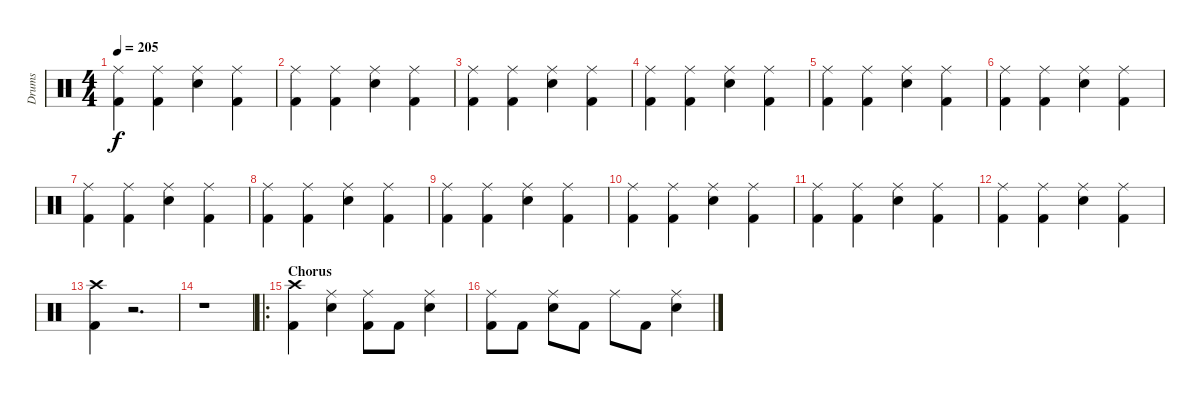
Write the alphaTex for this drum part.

\track ("Drums" "Drums") {instrument percussion}
\staff {score}
\articulation defaults
\ts (4 4)
\tempo 205
\clef neutral
\ks c
("Ride (middle)" "Kick (hit) 2").4{dy f} ("Ride (middle)" "Kick (hit) 2").4 ("Ride (middle)" "Electric Snare (hit)").4 ("Ride (middle)" "Kick (hit) 2").4 |
("Ride (middle)" "Kick (hit) 2").4 ("Ride (middle)" "Kick (hit) 2").4 ("Ride (middle)" "Electric Snare (hit)").4 ("Ride (middle)" "Kick (hit) 2").4 |
("Ride (middle)" "Kick (hit) 2").4 ("Ride (middle)" "Kick (hit) 2").4 ("Ride (middle)" "Electric Snare (hit)").4 ("Ride (middle)" "Kick (hit) 2").4 |
("Ride (middle)" "Kick (hit) 2").4 ("Ride (middle)" "Kick (hit) 2").4 ("Ride (middle)" "Electric Snare (hit)").4 ("Ride (middle)" "Kick (hit) 2").4 |
("Ride (middle)" "Kick (hit) 2").4 ("Ride (middle)" "Kick (hit) 2").4 ("Ride (middle)" "Electric Snare (hit)").4 ("Ride (middle)" "Kick (hit) 2").4 |
("Ride (middle)" "Kick (hit) 2").4 ("Ride (middle)" "Kick (hit) 2").4 ("Ride (middle)" "Electric Snare (hit)").4 ("Ride (middle)" "Kick (hit) 2").4 |
("Ride (middle)" "Kick (hit) 2").4 ("Ride (middle)" "Kick (hit) 2").4 ("Ride (middle)" "Electric Snare (hit)").4 ("Ride (middle)" "Kick (hit) 2").4 |
("Ride (middle)" "Kick (hit) 2").4 ("Ride (middle)" "Kick (hit) 2").4 ("Ride (middle)" "Electric Snare (hit)").4 ("Ride (middle)" "Kick (hit) 2").4 |
("Ride (middle)" "Kick (hit) 2").4 ("Ride (middle)" "Kick (hit) 2").4 ("Ride (middle)" "Electric Snare (hit)").4 ("Ride (middle)" "Kick (hit) 2").4 |
("Ride (middle)" "Kick (hit) 2").4 ("Ride (middle)" "Kick (hit) 2").4 ("Ride (middle)" "Electric Snare (hit)").4 ("Ride (middle)" "Kick (hit) 2").4 |
("Ride (middle)" "Kick (hit) 2").4 ("Ride (middle)" "Kick (hit) 2").4 ("Ride (middle)" "Electric Snare (hit)").4 ("Ride (middle)" "Kick (hit) 2").4 |
("Ride (middle)" "Kick (hit) 2").4 ("Ride (middle)" "Kick (hit) 2").4 ("Ride (middle)" "Electric Snare (hit)").4 ("Ride (middle)" "Kick (hit) 2").4 |
("Crash high (hit)" "Kick (hit) 2").4 r.2{d} |
r.1 |
\ro
\section ("" "Chorus")
("Crash high (hit)" "Kick (hit) 2").4 ("Ride (middle)" "Electric Snare (hit)").4 ("Ride (middle)" "Kick (hit) 2").8 "Kick (hit) 2".8 ("Ride (middle)" "Electric Snare (hit)").4 |
("Ride (middle)" "Kick (hit) 2").8 "Kick (hit) 2".8 ("Ride (middle)" "Electric Snare (hit)").8 "Kick (hit) 2".8 "Ride (middle)".8 "Kick (hit) 2".8 ("Ride (middle)" "Electric Snare (hit)").4
